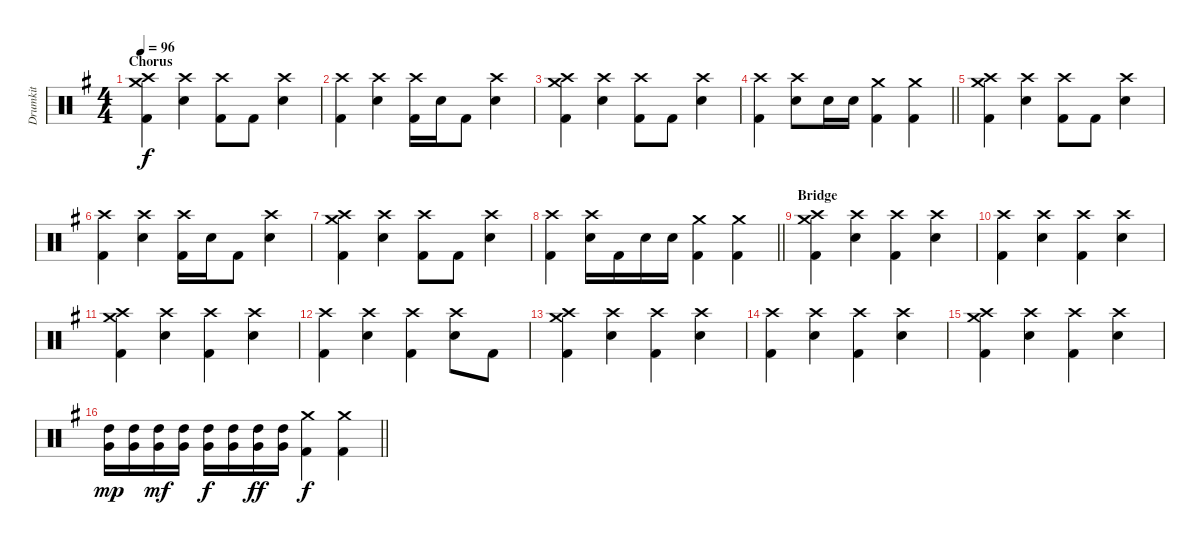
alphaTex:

\track ("Drumkit" "Drumkit") {instrument percussion}
\staff {score}
\articulation defaults
\ts (4 4)
\section ("" "Chorus")
\tempo 96
\clef neutral
\ks eminor
("Crash high (hit)" "Crash medium (hit)" "Kick (hit) 2").4{dy f} ("Crash high (hit)" "Electric Snare (hit)").4 ("Crash high (hit)" "Kick (hit) 2").8 "Kick (hit) 2".8 ("Crash high (hit)" "Electric Snare (hit)").4 |
("Crash high (hit)" "Kick (hit) 2").4 ("Crash high (hit)" "Electric Snare (hit)").4 ("Crash high (hit)" "Kick (hit) 2").16 "Electric Snare (hit)".16 "Kick (hit) 2".8 ("Crash high (hit)" "Electric Snare (hit)").4 |
("Crash high (hit)" "Crash medium (hit)" "Kick (hit) 2").4 ("Crash high (hit)" "Electric Snare (hit)").4 ("Crash high (hit)" "Kick (hit) 2").8 "Kick (hit) 2".8 ("Crash high (hit)" "Electric Snare (hit)").4 |
\barLineRight lightlight
("Crash high (hit)" "Kick (hit) 2").4 ("Crash high (hit)" "Electric Snare (hit)").8 "Electric Snare (hit)".16 "Electric Snare (hit)".16 ("Crash medium (hit)" "Kick (hit) 2").4 ("Crash medium (hit)" "Kick (hit) 2").4 |
("Crash high (hit)" "Crash medium (hit)" "Kick (hit) 2").4 ("Crash high (hit)" "Electric Snare (hit)").4 ("Crash high (hit)" "Kick (hit) 2").8 "Kick (hit) 2".8 ("Crash high (hit)" "Electric Snare (hit)").4 |
("Crash high (hit)" "Kick (hit) 2").4 ("Crash high (hit)" "Electric Snare (hit)").4 ("Crash high (hit)" "Kick (hit) 2").16 "Electric Snare (hit)".16 "Kick (hit) 2".8 ("Crash high (hit)" "Electric Snare (hit)").4 |
("Crash high (hit)" "Crash medium (hit)" "Kick (hit) 2").4 ("Crash high (hit)" "Electric Snare (hit)").4 ("Crash high (hit)" "Kick (hit) 2").8 "Kick (hit) 2".8 ("Crash high (hit)" "Electric Snare (hit)").4 |
\barLineRight lightlight
("Crash high (hit)" "Kick (hit) 2").4 ("Crash high (hit)" "Electric Snare (hit)").16 "Kick (hit) 2".16 "Electric Snare (hit)".16 "Electric Snare (hit)".16 ("Crash medium (hit)" "Kick (hit) 2").4 ("Crash medium (hit)" "Kick (hit) 2").4 |
\section ("" "Bridge")
("Crash high (hit)" "Crash medium (hit)" "Kick (hit) 2").4 ("Crash high (hit)" "Electric Snare (hit)").4 ("Crash high (hit)" "Kick (hit) 2").4 ("Crash high (hit)" "Electric Snare (hit)").4 |
("Crash high (hit)" "Kick (hit) 2").4 ("Crash high (hit)" "Electric Snare (hit)").4 ("Crash high (hit)" "Kick (hit) 2").4 ("Crash high (hit)" "Electric Snare (hit)").4 |
("Crash high (hit)" "Crash medium (hit)" "Kick (hit) 2").4 ("Crash high (hit)" "Electric Snare (hit)").4 ("Crash high (hit)" "Kick (hit) 2").4 ("Crash high (hit)" "Electric Snare (hit)").4 |
("Crash high (hit)" "Kick (hit) 2").4 ("Crash high (hit)" "Electric Snare (hit)").4 ("Crash high (hit)" "Kick (hit) 2").4 ("Crash high (hit)" "Electric Snare (hit)").8 "Kick (hit) 2".8 |
("Crash high (hit)" "Crash medium (hit)" "Kick (hit) 2").4 ("Crash high (hit)" "Electric Snare (hit)").4 ("Crash high (hit)" "Kick (hit) 2").4 ("Crash high (hit)" "Electric Snare (hit)").4 |
("Crash high (hit)" "Kick (hit) 2").4 ("Crash high (hit)" "Electric Snare (hit)").4 ("Crash high (hit)" "Kick (hit) 2").4 ("Crash high (hit)" "Electric Snare (hit)").4 |
("Crash high (hit)" "Crash medium (hit)" "Kick (hit) 2").4 ("Crash high (hit)" "Electric Snare (hit)").4 ("Crash high (hit)" "Kick (hit) 2").4 ("Crash high (hit)" "Electric Snare (hit)").4 |
\barLineRight lightlight
("Very Low Tom (hit)" "High Tom (hit)").16{dy mp} ("Very Low Tom (hit)" "High Tom (hit)").16 ("Very Low Tom (hit)" "High Tom (hit)").16{dy mf} ("Very Low Tom (hit)" "High Tom (hit)").16 ("Very Low Tom (hit)" "High Tom (hit)").16{dy f} ("Very Low Tom (hit)" "High Tom (hit)").16 ("Very Low Tom (hit)" "High Tom (hit)").16{dy ff} ("Very Low Tom (hit)" "High Tom (hit)").16 ("Crash medium (hit)" "Kick (hit) 2").4{dy f} ("Crash medium (hit)" "Kick (hit) 2").4
